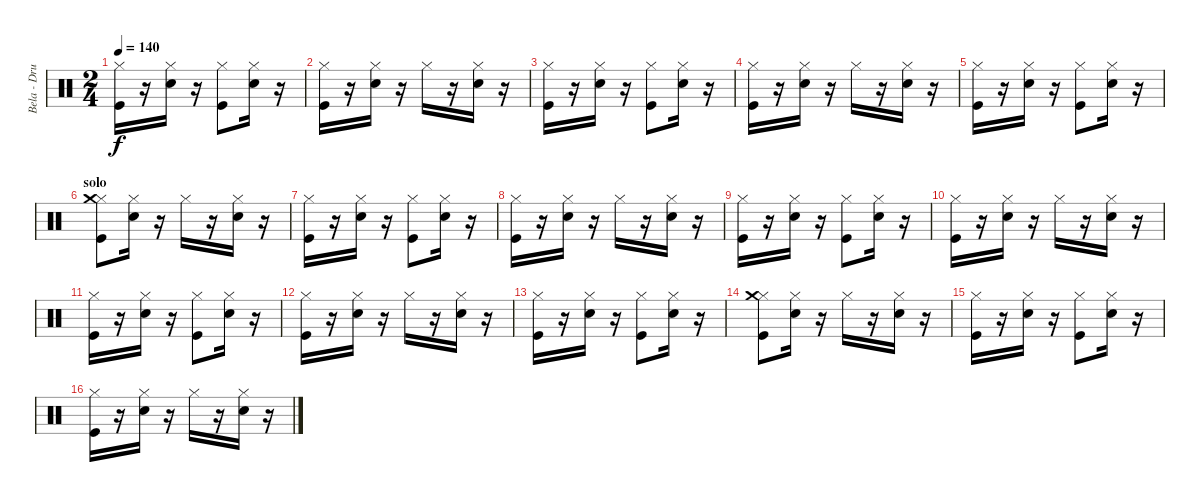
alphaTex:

\track ("Bela - Drums" "Bela - Dru") {instrument percussion}
\staff {score}
\articulation defaults
\ts (2 4)
\tempo 140
\clef neutral
\ks c
("Kick (hit)" "Hi-Hat (closed)").16{dy f} r.16 ("Electric Snare (hit)" "Hi-Hat (closed)").16 r.16 ("Hi-Hat (closed)" "Kick (hit)").8 ("Electric Snare (hit)" "Hi-Hat (closed)").16 r.16 |
("Kick (hit)" "Hi-Hat (closed)").16 r.16 ("Electric Snare (hit)" "Hi-Hat (closed)").16 r.16 "Hi-Hat (closed)".16 r.16 ("Electric Snare (hit)" "Hi-Hat (closed)").16 r.16 |
("Kick (hit)" "Hi-Hat (closed)").16 r.16 ("Electric Snare (hit)" "Hi-Hat (closed)").16 r.16 ("Hi-Hat (closed)" "Kick (hit)").8 ("Electric Snare (hit)" "Hi-Hat (closed)").16 r.16 |
("Kick (hit)" "Hi-Hat (closed)").16 r.16 ("Electric Snare (hit)" "Hi-Hat (closed)").16 r.16 "Hi-Hat (closed)".16 r.16 ("Electric Snare (hit)" "Hi-Hat (closed)").16 r.16 |
("Kick (hit)" "Hi-Hat (closed)").16 r.16 ("Electric Snare (hit)" "Hi-Hat (closed)").16 r.16 ("Hi-Hat (closed)" "Kick (hit)").8 ("Electric Snare (hit)" "Hi-Hat (closed)").16 r.16 |
\section ("" "solo")
("Kick (hit)" "Hi-Hat (closed)" "Crash medium (hit)").8 ("Electric Snare (hit)" "Hi-Hat (closed)").16 r.16 "Hi-Hat (closed)".16 r.16 ("Electric Snare (hit)" "Hi-Hat (closed)").16 r.16 |
("Kick (hit)" "Hi-Hat (closed)").16 r.16 ("Electric Snare (hit)" "Hi-Hat (closed)").16 r.16 ("Hi-Hat (closed)" "Kick (hit)").8 ("Electric Snare (hit)" "Hi-Hat (closed)").16 r.16 |
("Kick (hit)" "Hi-Hat (closed)").16 r.16 ("Electric Snare (hit)" "Hi-Hat (closed)").16 r.16 "Hi-Hat (closed)".16 r.16 ("Electric Snare (hit)" "Hi-Hat (closed)").16 r.16 |
("Kick (hit)" "Hi-Hat (closed)").16 r.16 ("Electric Snare (hit)" "Hi-Hat (closed)").16 r.16 ("Hi-Hat (closed)" "Kick (hit)").8 ("Electric Snare (hit)" "Hi-Hat (closed)").16 r.16 |
("Kick (hit)" "Hi-Hat (closed)").16 r.16 ("Electric Snare (hit)" "Hi-Hat (closed)").16 r.16 "Hi-Hat (closed)".16 r.16 ("Electric Snare (hit)" "Hi-Hat (closed)").16 r.16 |
("Kick (hit)" "Hi-Hat (closed)").16 r.16 ("Electric Snare (hit)" "Hi-Hat (closed)").16 r.16 ("Hi-Hat (closed)" "Kick (hit)").8 ("Electric Snare (hit)" "Hi-Hat (closed)").16 r.16 |
("Kick (hit)" "Hi-Hat (closed)").16 r.16 ("Electric Snare (hit)" "Hi-Hat (closed)").16 r.16 "Hi-Hat (closed)".16 r.16 ("Electric Snare (hit)" "Hi-Hat (closed)").16 r.16 |
("Kick (hit)" "Hi-Hat (closed)").16 r.16 ("Electric Snare (hit)" "Hi-Hat (closed)").16 r.16 ("Hi-Hat (closed)" "Kick (hit)").8 ("Electric Snare (hit)" "Hi-Hat (closed)").16 r.16 |
("Kick (hit)" "Hi-Hat (closed)" "Crash medium (hit)").8 ("Electric Snare (hit)" "Hi-Hat (closed)").16 r.16 "Hi-Hat (closed)".16 r.16 ("Electric Snare (hit)" "Hi-Hat (closed)").16 r.16 |
("Kick (hit)" "Hi-Hat (closed)").16 r.16 ("Electric Snare (hit)" "Hi-Hat (closed)").16 r.16 ("Hi-Hat (closed)" "Kick (hit)").8 ("Electric Snare (hit)" "Hi-Hat (closed)").16 r.16 |
("Kick (hit)" "Hi-Hat (closed)").16 r.16 ("Electric Snare (hit)" "Hi-Hat (closed)").16 r.16 "Hi-Hat (closed)".16 r.16 ("Electric Snare (hit)" "Hi-Hat (closed)").16 r.16
